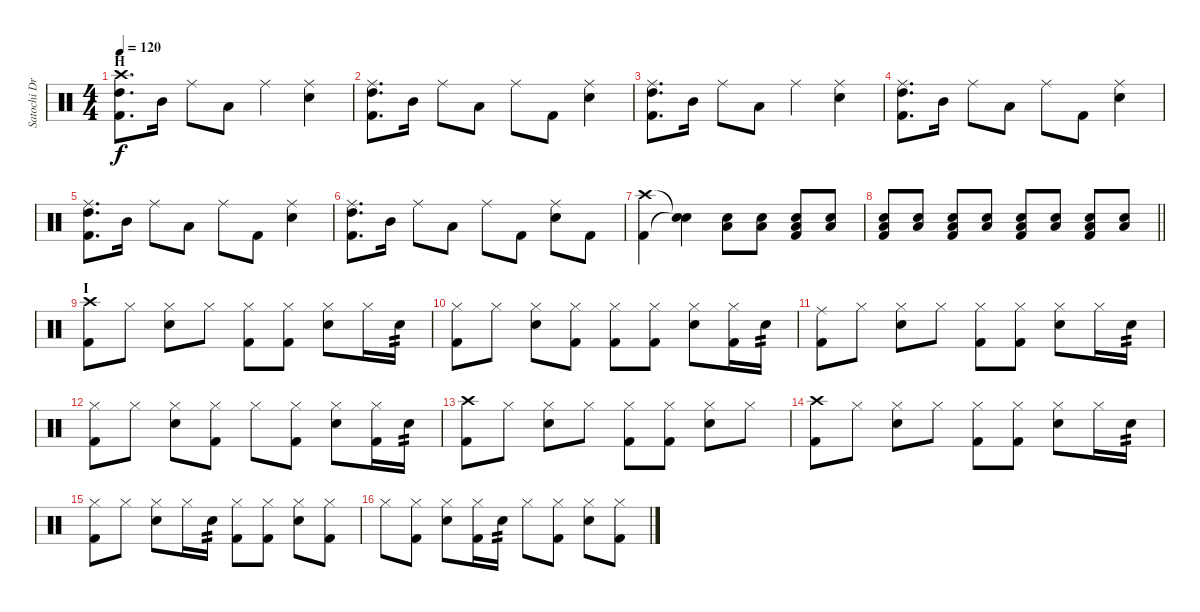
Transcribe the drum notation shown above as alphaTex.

\track ("Satochi Drums" "Satochi Dr") {instrument percussion}
\staff {score}
\articulation defaults
\ts (4 4)
\section ("" "H")
\tempo 120
\clef neutral
\ks c
("Crash high (hit)" "High Tom (hit)" "Kick (hit) 2").8{d dy f} "Mid Tom (hit)".16 "Ride (middle)".8 "Low Floor Tom (hit)".8 "Ride (middle)".4 ("Ride (middle)" "Snare (hit) 2").4 |
("Ride (middle)" "High Tom (hit)" "Kick (hit) 2").8{d} "Mid Tom (hit)".16 "Ride (middle)".8 "Low Floor Tom (hit)".8 "Ride (middle)".8 "Kick (hit) 2".8 ("Ride (middle)" "Snare (hit) 2").4 |
("Ride (middle)" "High Tom (hit)" "Kick (hit) 2").8{d} "Mid Tom (hit)".16 "Ride (middle)".8 "Low Floor Tom (hit)".8 "Ride (middle)".4 ("Ride (middle)" "Snare (hit) 2").4 |
("Ride (middle)" "High Tom (hit)" "Kick (hit) 2").8{d} "Mid Tom (hit)".16 "Ride (middle)".8 "Low Floor Tom (hit)".8 "Ride (middle)".8 "Kick (hit) 2".8 ("Ride (middle)" "Snare (hit) 2").4 |
("Ride (middle)" "High Tom (hit)" "Kick (hit) 2").8{d} "Mid Tom (hit)".16 "Ride (middle)".8 "Low Floor Tom (hit)".8 "Ride (middle)".8 "Kick (hit) 2".8 ("Ride (middle)" "Snare (hit) 2").4 |
("Ride (middle)" "High Tom (hit)" "Kick (hit) 2").8{d} "Mid Tom (hit)".16 "Ride (middle)".8 "Low Floor Tom (hit)".8 "Ride (middle)".8 "Kick (hit) 2".8 ("Ride (middle)" "Snare (hit) 2").8 "Kick (hit) 2".8 |
("Crash high (hit)" "Kick (hit) 2").4 ("Snare (hit)"{t} "Snare (hit)"{t}).4 ("Snare (hit) 2" "Low Floor Tom (hit)").8 ("Snare (hit) 2" "Low Floor Tom (hit)").8 ("Snare (hit) 2" "Low Floor Tom (hit)" "Kick (hit) 2").8 ("Snare (hit) 2" "Low Floor Tom (hit)").8 |
\barLineRight lightlight
("Snare (hit) 2" "Low Floor Tom (hit)" "Kick (hit) 2").8 ("Snare (hit) 2" "Low Floor Tom (hit)").8 ("Snare (hit) 2" "Low Floor Tom (hit)" "Kick (hit) 2").8 ("Snare (hit) 2" "Low Floor Tom (hit)").8 ("Snare (hit) 2" "Low Floor Tom (hit)" "Kick (hit) 2").8 ("Snare (hit) 2" "Low Floor Tom (hit)").8 ("Snare (hit) 2" "Low Floor Tom (hit)" "Kick (hit) 2").8 ("Snare (hit) 2" "Low Floor Tom (hit)").8 |
\section ("" "I")
("Crash high (hit)" "Kick (hit) 2").8 "Hi-Hat (closed)".8 ("Hi-Hat (closed)" "Snare (hit) 2").8 "Hi-Hat (closed)".8 ("Hi-Hat (closed)" "Kick (hit) 2").8 ("Hi-Hat (closed)" "Kick (hit) 2").8 ("Hi-Hat (closed)" "Snare (hit) 2").8 "Hi-Hat (closed)".16 "Snare (hit) 2".16{tp 2} |
("Hi-Hat (closed)" "Kick (hit) 2").8 "Hi-Hat (closed)".8 ("Hi-Hat (closed)" "Snare (hit) 2").8 ("Hi-Hat (closed)" "Kick (hit) 2").8 ("Hi-Hat (closed)" "Kick (hit) 2").8 ("Hi-Hat (closed)" "Kick (hit) 2").8 ("Hi-Hat (closed)" "Snare (hit) 2").8 ("Hi-Hat (closed)" "Kick (hit) 2").16 "Snare (hit) 2".16{tp 2} |
("Ride (middle)" "Kick (hit) 2").8 "Hi-Hat (closed)".8 ("Hi-Hat (closed)" "Snare (hit) 2").8 "Hi-Hat (closed)".8 ("Hi-Hat (closed)" "Kick (hit) 2").8 ("Hi-Hat (closed)" "Kick (hit) 2").8 ("Hi-Hat (closed)" "Snare (hit) 2").8 "Hi-Hat (closed)".16 "Snare (hit) 2".16{tp 2} |
("Hi-Hat (closed)" "Kick (hit) 2").8 "Hi-Hat (closed)".8 ("Hi-Hat (closed)" "Snare (hit) 2").8 ("Hi-Hat (closed)" "Kick (hit) 2").8 "Hi-Hat (closed)".8 ("Hi-Hat (closed)" "Kick (hit) 2").8 ("Hi-Hat (closed)" "Snare (hit) 2").8 ("Hi-Hat (closed)" "Kick (hit) 2").16 "Snare (hit) 2".16{tp 2} |
("Crash high (hit)" "Kick (hit) 2").8 "Hi-Hat (closed)".8 ("Hi-Hat (closed)" "Snare (hit) 2").8 "Hi-Hat (closed)".8 ("Hi-Hat (closed)" "Kick (hit) 2").8 ("Hi-Hat (closed)" "Kick (hit) 2").8 ("Hi-Hat (closed)" "Snare (hit) 2").8 "Hi-Hat (closed)".8 |
("Crash high (hit)" "Kick (hit) 2").8 "Hi-Hat (closed)".8 ("Hi-Hat (closed)" "Snare (hit) 2").8 "Hi-Hat (closed)".8 ("Hi-Hat (closed)" "Kick (hit) 2").8 ("Hi-Hat (closed)" "Kick (hit) 2").8 ("Hi-Hat (closed)" "Snare (hit) 2").8 "Hi-Hat (closed)".16 "Snare (hit) 2".16{tp 2} |
("Hi-Hat (closed)" "Kick (hit) 2").8 "Hi-Hat (closed)".8 ("Hi-Hat (closed)" "Snare (hit) 2").8 "Hi-Hat (closed)".16 "Snare (hit) 2".16{tp 2} ("Hi-Hat (closed)" "Kick (hit) 2").8 ("Hi-Hat (closed)" "Kick (hit) 2").8 ("Hi-Hat (closed)" "Snare (hit) 2").8 ("Hi-Hat (closed)" "Kick (hit) 2").8 |
"Hi-Hat (closed)".8 ("Hi-Hat (closed)" "Kick (hit) 2").8 ("Hi-Hat (closed)" "Snare (hit) 2").8 ("Hi-Hat (closed)" "Kick (hit) 2").16 "Snare (hit) 2".16{tp 2} "Hi-Hat (closed)".8 ("Hi-Hat (closed)" "Kick (hit) 2").8 ("Hi-Hat (closed)" "Snare (hit) 2").8 ("Hi-Hat (closed)" "Kick (hit) 2").8
